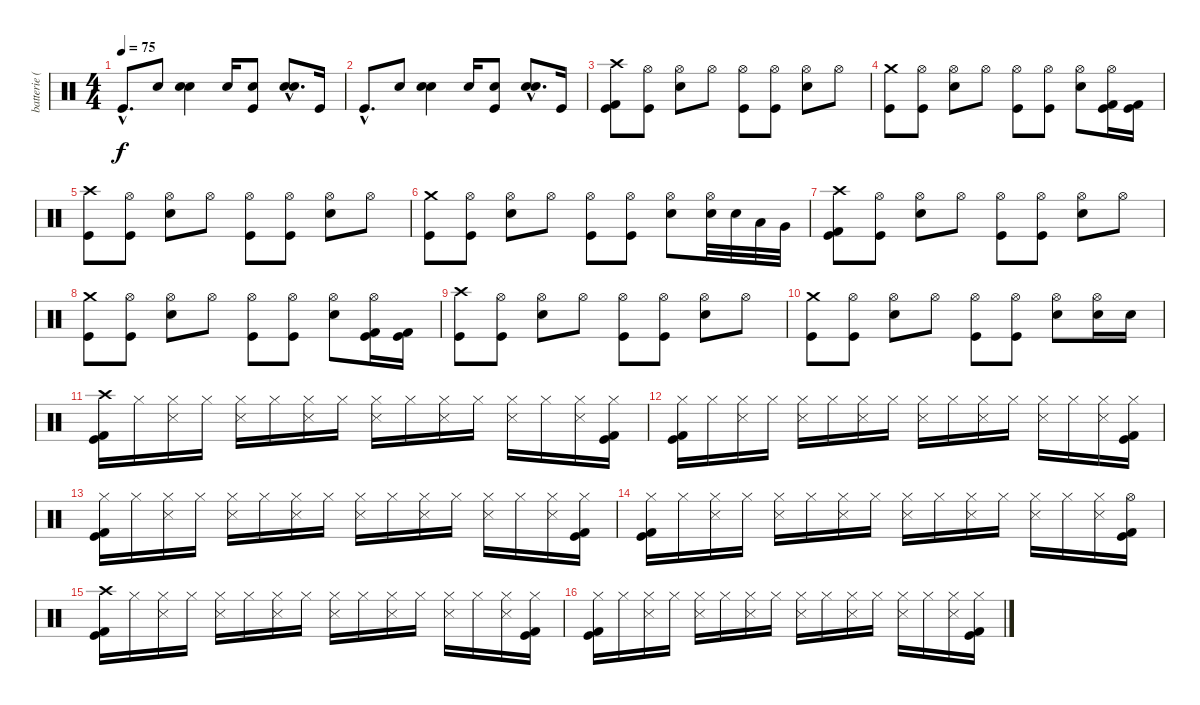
\track ("batterie ( fabien )" "batterie (") {instrument percussion}
\staff {score}
\articulation defaults
\ts (4 4)
\tempo 75
\clef neutral
\ks c "Kick (hit)"{hac}.8{d dy f} "Hand Clap (hit)".8
("Electric Snare (hit)" "Hand Clap (hit)").4 "Hand Clap (hit)".16 ("Hand Clap (hit)" "Kick (hit)").8 ("Electric Snare (hit)"{hac} "Hand Clap (hit)"{hac}).8{d} "Kick (hit)".16 |
"Kick (hit)"{hac}.8{d} "Hand Clap (hit)".8 ("Electric Snare (hit)" "Hand Clap (hit)").4 "Hand Clap (hit)".16 ("Hand Clap (hit)" "Kick (hit)").8 ("Electric Snare (hit)"{hac} "Hand Clap (hit)"{hac}).8{d} "Kick (hit)".16 |
("Crash high (hit)" "Kick (hit) 2" "Kick (hit)").8 ("Hi-Hat (open)" "Kick (hit)").8 ("Hi-Hat (open)" "Snare (hit) 2").8 "Hi-Hat (open)".8 ("Hi-Hat (open)" "Kick (hit)").8 ("Hi-Hat (open)" "Kick (hit)").8 ("Hi-Hat (open)" "Snare (hit) 2").8 "Hi-Hat (open)".8 |
("Crash medium (hit)" "Kick (hit)").8 ("Hi-Hat (open)" "Kick (hit)").8 ("Hi-Hat (open)" "Snare (hit) 2").8 "Hi-Hat (open)".8 ("Hi-Hat (open)" "Kick (hit)").8 ("Hi-Hat (open)" "Kick (hit)").8 ("Hi-Hat (open)" "Snare (hit) 2").8 ("Hi-Hat (open)" "Kick (hit) 2" "Kick (hit)").16 ("Kick (hit) 2" "Kick (hit)").16 |
("Crash high (hit)" "Kick (hit)").8 ("Hi-Hat (open)" "Kick (hit)").8 ("Hi-Hat (open)" "Snare (hit) 2").8 "Hi-Hat (open)".8 ("Hi-Hat (open)" "Kick (hit)").8 ("Hi-Hat (open)" "Kick (hit)").8 ("Hi-Hat (open)" "Snare (hit) 2").8 "Hi-Hat (open)".8 |
("Crash medium (hit)" "Kick (hit)").8 ("Hi-Hat (open)" "Kick (hit)").8 ("Hi-Hat (open)" "Snare (hit) 2").8 "Hi-Hat (open)".8 ("Hi-Hat (open)" "Kick (hit)").8 ("Hi-Hat (open)" "Kick (hit)").8 ("Hi-Hat (open)" "Snare (hit) 2").8 ("Hi-Hat (open)" "Snare (hit) 2").32 "Snare (hit) 2".32 "Low Tom (hit)".32 "Very Low Tom (hit)".32 |
("Crash high (hit)" "Kick (hit) 2" "Kick (hit)").8 ("Hi-Hat (open)" "Kick (hit)").8 ("Hi-Hat (open)" "Snare (hit) 2").8 "Hi-Hat (open)".8 ("Hi-Hat (open)" "Kick (hit)").8 ("Hi-Hat (open)" "Kick (hit)").8 ("Hi-Hat (open)" "Snare (hit) 2").8 "Hi-Hat (open)".8 |
("Crash medium (hit)" "Kick (hit)").8 ("Hi-Hat (open)" "Kick (hit)").8 ("Hi-Hat (open)" "Snare (hit) 2").8 "Hi-Hat (open)".8 ("Hi-Hat (open)" "Kick (hit)").8 ("Hi-Hat (open)" "Kick (hit)").8 ("Hi-Hat (open)" "Snare (hit) 2").8 ("Hi-Hat (open)" "Kick (hit) 2" "Kick (hit)").16 ("Kick (hit) 2" "Kick (hit)").16 |
("Crash high (hit)" "Kick (hit)").8 ("Hi-Hat (open)" "Kick (hit)").8 ("Hi-Hat (open)" "Snare (hit) 2").8 "Hi-Hat (open)".8 ("Hi-Hat (open)" "Kick (hit)").8 ("Hi-Hat (open)" "Kick (hit)").8 ("Hi-Hat (open)" "Snare (hit) 2").8 "Hi-Hat (open)".8 |
("Crash medium (hit)" "Kick (hit)").8 ("Hi-Hat (open)" "Kick (hit)").8 ("Hi-Hat (open)" "Snare (hit) 2").8 "Hi-Hat (open)".8 ("Hi-Hat (open)" "Kick (hit)").8 ("Hi-Hat (open)" "Kick (hit)").8 ("Hi-Hat (open)" "Snare (hit) 2").8 ("Hi-Hat (open)" "Snare (hit) 2").16 "Snare (hit) 2".16 |
("Crash high (hit)" "Kick (hit) 2" "Kick (hit)").16 "Hi-Hat (closed)".16 ("Hi-Hat (closed)" "Snare (side stick) 3").16 "Hi-Hat (closed)".16 ("Hi-Hat (closed)" "Snare (side stick) 3").16 "Hi-Hat (closed)".16 ("Hi-Hat (closed)" "Snare (side stick) 3").16 "Hi-Hat (closed)".16 ("Hi-Hat (closed)" "Snare (side stick) 3").16 "Hi-Hat (closed)".16 ("Hi-Hat (closed)" "Snare (side stick) 3").16 "Hi-Hat (closed)".16 ("Hi-Hat (closed)" "Snare (side stick) 3").16 "Hi-Hat (closed)".16 ("Hi-Hat (closed)" "Snare (side stick) 3").16 ("Hi-Hat (closed)" "Kick (hit) 2" "Kick (hit)").16 |
("Hi-Hat (closed)" "Kick (hit) 2" "Kick (hit)").16 "Hi-Hat (closed)".16 ("Hi-Hat (closed)" "Snare (side stick) 3").16 "Hi-Hat (closed)".16 ("Hi-Hat (closed)" "Snare (side stick) 3").16 "Hi-Hat (closed)".16 ("Hi-Hat (closed)" "Snare (side stick) 3").16 "Hi-Hat (closed)".16 ("Hi-Hat (closed)" "Snare (side stick) 3").16 "Hi-Hat (closed)".16 ("Hi-Hat (closed)" "Snare (side stick) 3").16 "Hi-Hat (closed)".16 ("Hi-Hat (closed)" "Snare (side stick) 3").16 "Hi-Hat (closed)".16 ("Hi-Hat (closed)" "Snare (side stick) 3").16 ("Hi-Hat (closed)" "Kick (hit) 2" "Kick (hit)").16 |
("Hi-Hat (closed)" "Kick (hit) 2" "Kick (hit)").16 "Hi-Hat (closed)".16 ("Hi-Hat (closed)" "Snare (side stick) 3").16 "Hi-Hat (closed)".16 ("Hi-Hat (closed)" "Snare (side stick) 3").16 "Hi-Hat (closed)".16 ("Hi-Hat (closed)" "Snare (side stick) 3").16 "Hi-Hat (closed)".16 ("Hi-Hat (closed)" "Snare (side stick) 3").16 "Hi-Hat (closed)".16 ("Hi-Hat (closed)" "Snare (side stick) 3").16 "Hi-Hat (closed)".16 ("Hi-Hat (closed)" "Snare (side stick) 3").16 "Hi-Hat (closed)".16 ("Hi-Hat (closed)" "Snare (side stick) 3").16 ("Hi-Hat (closed)" "Kick (hit) 2" "Kick (hit)").16 |
("Hi-Hat (closed)" "Kick (hit) 2" "Kick (hit)").16 "Hi-Hat (closed)".16 ("Hi-Hat (closed)" "Snare (side stick) 3").16 "Hi-Hat (closed)".16 ("Hi-Hat (closed)" "Snare (side stick) 3").16 "Hi-Hat (closed)".16 ("Hi-Hat (closed)" "Snare (side stick) 3").16 "Hi-Hat (closed)".16 ("Hi-Hat (closed)" "Snare (side stick) 3").16 "Hi-Hat (closed)".16 ("Hi-Hat (closed)" "Snare (side stick) 3").16 "Hi-Hat (closed)".16 ("Hi-Hat (closed)" "Snare (side stick) 3").16 "Hi-Hat (closed)".16 ("Hi-Hat (closed)" "Snare (side stick) 3").16 ("Hi-Hat (open)" "Kick (hit) 2" "Kick (hit)").16 |
("Crash high (hit)" "Kick (hit) 2" "Kick (hit)").16 "Hi-Hat (closed)".16 ("Hi-Hat (closed)" "Snare (side stick) 3").16 "Hi-Hat (closed)".16 ("Hi-Hat (closed)" "Snare (side stick) 3").16 "Hi-Hat (closed)".16 ("Hi-Hat (closed)" "Snare (side stick) 3").16 "Hi-Hat (closed)".16 ("Hi-Hat (closed)" "Snare (side stick) 3").16 "Hi-Hat (closed)".16 ("Hi-Hat (closed)" "Snare (side stick) 3").16 "Hi-Hat (closed)".16 ("Hi-Hat (closed)" "Snare (side stick) 3").16 "Hi-Hat (closed)".16 ("Hi-Hat (closed)" "Snare (side stick) 3").16 ("Hi-Hat (closed)" "Kick (hit) 2" "Kick (hit)").16 |
("Hi-Hat (closed)" "Kick (hit) 2" "Kick (hit)").16 "Hi-Hat (closed)".16 ("Hi-Hat (closed)" "Snare (side stick) 3").16 "Hi-Hat (closed)".16 ("Hi-Hat (closed)" "Snare (side stick) 3").16 "Hi-Hat (closed)".16 ("Hi-Hat (closed)" "Snare (side stick) 3").16 "Hi-Hat (closed)".16 ("Hi-Hat (closed)" "Snare (side stick) 3").16 "Hi-Hat (closed)".16 ("Hi-Hat (closed)" "Snare (side stick) 3").16 "Hi-Hat (closed)".16 ("Hi-Hat (closed)" "Snare (side stick) 3").16 "Hi-Hat (closed)".16 ("Hi-Hat (closed)" "Snare (side stick) 3").16 ("Hi-Hat (closed)" "Kick (hit) 2" "Kick (hit)").16
